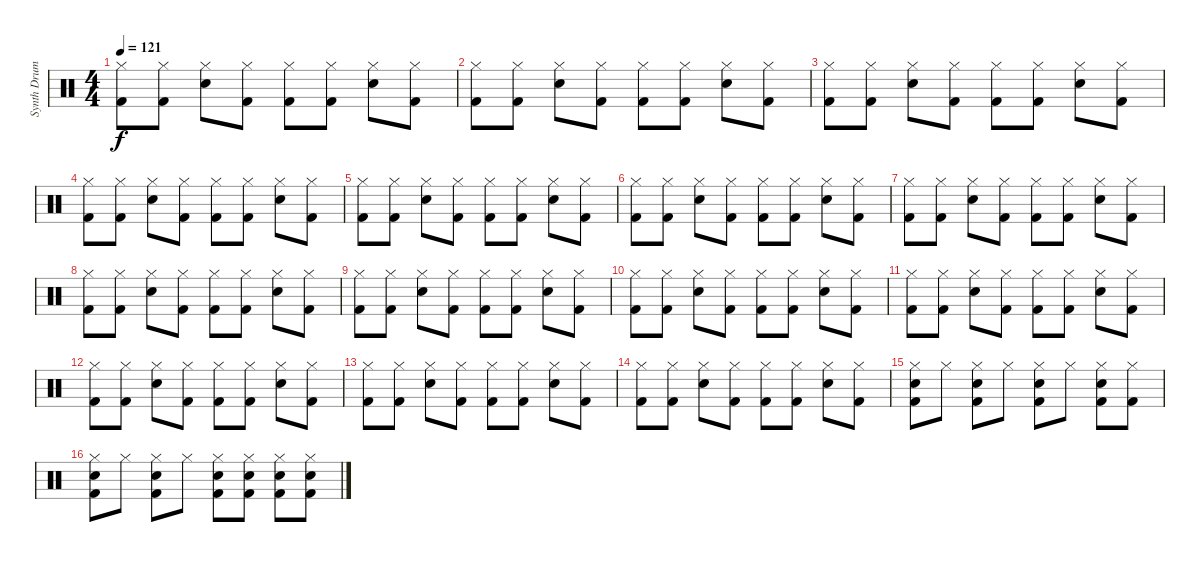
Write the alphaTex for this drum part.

\track ("Synth Drums" "Synth Drum") {instrument percussion}
\staff {score}
\articulation defaults
\ts (4 4)
\tempo 121
\clef neutral
\ks c
("Hi-Hat (closed)" "Kick (hit) 2").8{dy f} ("Hi-Hat (closed)" "Kick (hit) 2").8 ("Hi-Hat (closed)" "Electric Snare (hit)").8 ("Hi-Hat (closed)" "Kick (hit) 2").8 ("Hi-Hat (closed)" "Kick (hit) 2").8 ("Hi-Hat (closed)" "Kick (hit) 2").8 ("Hi-Hat (closed)" "Electric Snare (hit)").8 ("Hi-Hat (closed)" "Kick (hit) 2").8 |
("Hi-Hat (closed)" "Kick (hit) 2").8 ("Hi-Hat (closed)" "Kick (hit) 2").8 ("Hi-Hat (closed)" "Electric Snare (hit)").8 ("Hi-Hat (closed)" "Kick (hit) 2").8 ("Hi-Hat (closed)" "Kick (hit) 2").8 ("Hi-Hat (closed)" "Kick (hit) 2").8 ("Hi-Hat (closed)" "Electric Snare (hit)").8 ("Hi-Hat (closed)" "Kick (hit) 2").8 |
("Hi-Hat (closed)" "Kick (hit) 2").8 ("Hi-Hat (closed)" "Kick (hit) 2").8 ("Hi-Hat (closed)" "Electric Snare (hit)").8 ("Hi-Hat (closed)" "Kick (hit) 2").8 ("Hi-Hat (closed)" "Kick (hit) 2").8 ("Hi-Hat (closed)" "Kick (hit) 2").8 ("Hi-Hat (closed)" "Electric Snare (hit)").8 ("Hi-Hat (closed)" "Kick (hit) 2").8 |
("Hi-Hat (closed)" "Kick (hit) 2").8 ("Hi-Hat (closed)" "Kick (hit) 2").8 ("Hi-Hat (closed)" "Electric Snare (hit)").8 ("Hi-Hat (closed)" "Kick (hit) 2").8 ("Hi-Hat (closed)" "Kick (hit) 2").8 ("Hi-Hat (closed)" "Kick (hit) 2").8 ("Hi-Hat (closed)" "Electric Snare (hit)").8 ("Hi-Hat (closed)" "Kick (hit) 2").8 |
("Hi-Hat (closed)" "Kick (hit) 2").8 ("Hi-Hat (closed)" "Kick (hit) 2").8 ("Hi-Hat (closed)" "Electric Snare (hit)").8 ("Hi-Hat (closed)" "Kick (hit) 2").8 ("Hi-Hat (closed)" "Kick (hit) 2").8 ("Hi-Hat (closed)" "Kick (hit) 2").8 ("Hi-Hat (closed)" "Electric Snare (hit)").8 ("Hi-Hat (closed)" "Kick (hit) 2").8 |
("Hi-Hat (closed)" "Kick (hit) 2").8 ("Hi-Hat (closed)" "Kick (hit) 2").8 ("Hi-Hat (closed)" "Electric Snare (hit)").8 ("Hi-Hat (closed)" "Kick (hit) 2").8 ("Hi-Hat (closed)" "Kick (hit) 2").8 ("Hi-Hat (closed)" "Kick (hit) 2").8 ("Hi-Hat (closed)" "Electric Snare (hit)").8 ("Hi-Hat (closed)" "Kick (hit) 2").8 |
("Hi-Hat (closed)" "Kick (hit) 2").8 ("Hi-Hat (closed)" "Kick (hit) 2").8 ("Hi-Hat (closed)" "Electric Snare (hit)").8 ("Hi-Hat (closed)" "Kick (hit) 2").8 ("Hi-Hat (closed)" "Kick (hit) 2").8 ("Hi-Hat (closed)" "Kick (hit) 2").8 ("Hi-Hat (closed)" "Electric Snare (hit)").8 ("Hi-Hat (closed)" "Kick (hit) 2").8 |
("Hi-Hat (closed)" "Kick (hit) 2").8 ("Hi-Hat (closed)" "Kick (hit) 2").8 ("Hi-Hat (closed)" "Electric Snare (hit)").8 ("Hi-Hat (closed)" "Kick (hit) 2").8 ("Hi-Hat (closed)" "Kick (hit) 2").8 ("Hi-Hat (closed)" "Kick (hit) 2").8 ("Hi-Hat (closed)" "Electric Snare (hit)").8 ("Hi-Hat (closed)" "Kick (hit) 2").8 |
("Hi-Hat (closed)" "Kick (hit) 2").8 ("Hi-Hat (closed)" "Kick (hit) 2").8 ("Hi-Hat (closed)" "Electric Snare (hit)").8 ("Hi-Hat (closed)" "Kick (hit) 2").8 ("Hi-Hat (closed)" "Kick (hit) 2").8 ("Hi-Hat (closed)" "Kick (hit) 2").8 ("Hi-Hat (closed)" "Electric Snare (hit)").8 ("Hi-Hat (closed)" "Kick (hit) 2").8 |
("Hi-Hat (closed)" "Kick (hit) 2").8 ("Hi-Hat (closed)" "Kick (hit) 2").8 ("Hi-Hat (closed)" "Electric Snare (hit)").8 ("Hi-Hat (closed)" "Kick (hit) 2").8 ("Hi-Hat (closed)" "Kick (hit) 2").8 ("Hi-Hat (closed)" "Kick (hit) 2").8 ("Hi-Hat (closed)" "Electric Snare (hit)").8 ("Hi-Hat (closed)" "Kick (hit) 2").8 |
("Hi-Hat (closed)" "Kick (hit) 2").8 ("Hi-Hat (closed)" "Kick (hit) 2").8 ("Hi-Hat (closed)" "Electric Snare (hit)").8 ("Hi-Hat (closed)" "Kick (hit) 2").8 ("Hi-Hat (closed)" "Kick (hit) 2").8 ("Hi-Hat (closed)" "Kick (hit) 2").8 ("Hi-Hat (closed)" "Electric Snare (hit)").8 ("Hi-Hat (closed)" "Kick (hit) 2").8 |
("Hi-Hat (closed)" "Kick (hit) 2").8 ("Hi-Hat (closed)" "Kick (hit) 2").8 ("Hi-Hat (closed)" "Electric Snare (hit)").8 ("Hi-Hat (closed)" "Kick (hit) 2").8 ("Hi-Hat (closed)" "Kick (hit) 2").8 ("Hi-Hat (closed)" "Kick (hit) 2").8 ("Hi-Hat (closed)" "Electric Snare (hit)").8 ("Hi-Hat (closed)" "Kick (hit) 2").8 |
("Hi-Hat (closed)" "Kick (hit) 2").8 ("Hi-Hat (closed)" "Kick (hit) 2").8 ("Hi-Hat (closed)" "Electric Snare (hit)").8 ("Hi-Hat (closed)" "Kick (hit) 2").8 ("Hi-Hat (closed)" "Kick (hit) 2").8 ("Hi-Hat (closed)" "Kick (hit) 2").8 ("Hi-Hat (closed)" "Electric Snare (hit)").8 ("Hi-Hat (closed)" "Kick (hit) 2").8 |
("Hi-Hat (closed)" "Kick (hit) 2").8 ("Hi-Hat (closed)" "Kick (hit) 2").8 ("Hi-Hat (closed)" "Electric Snare (hit)").8 ("Hi-Hat (closed)" "Kick (hit) 2").8 ("Hi-Hat (closed)" "Kick (hit) 2").8 ("Hi-Hat (closed)" "Kick (hit) 2").8 ("Hi-Hat (closed)" "Electric Snare (hit)").8 ("Hi-Hat (closed)" "Kick (hit) 2").8 |
("Hi-Hat (closed)" "Electric Snare (hit)" "Kick (hit) 2").8 "Hi-Hat (closed)".8 ("Hi-Hat (closed)" "Electric Snare (hit)" "Kick (hit) 2").8 "Hi-Hat (closed)".8 ("Hi-Hat (closed)" "Electric Snare (hit)" "Kick (hit) 2").8 "Hi-Hat (closed)".8 ("Hi-Hat (closed)" "Electric Snare (hit)" "Kick (hit) 2").8 ("Hi-Hat (closed)" "Kick (hit) 2").8 |
("Hi-Hat (closed)" "Electric Snare (hit)" "Kick (hit) 2").8 "Hi-Hat (closed)".8 ("Hi-Hat (closed)" "Electric Snare (hit)" "Kick (hit) 2").8 "Hi-Hat (closed)".8 ("Hi-Hat (closed)" "Electric Snare (hit)" "Kick (hit) 2").8 ("Hi-Hat (closed)" "Electric Snare (hit)" "Kick (hit) 2").8 ("Hi-Hat (closed)" "Electric Snare (hit)" "Kick (hit) 2").8 ("Hi-Hat (closed)" "Electric Snare (hit)" "Kick (hit) 2").8
